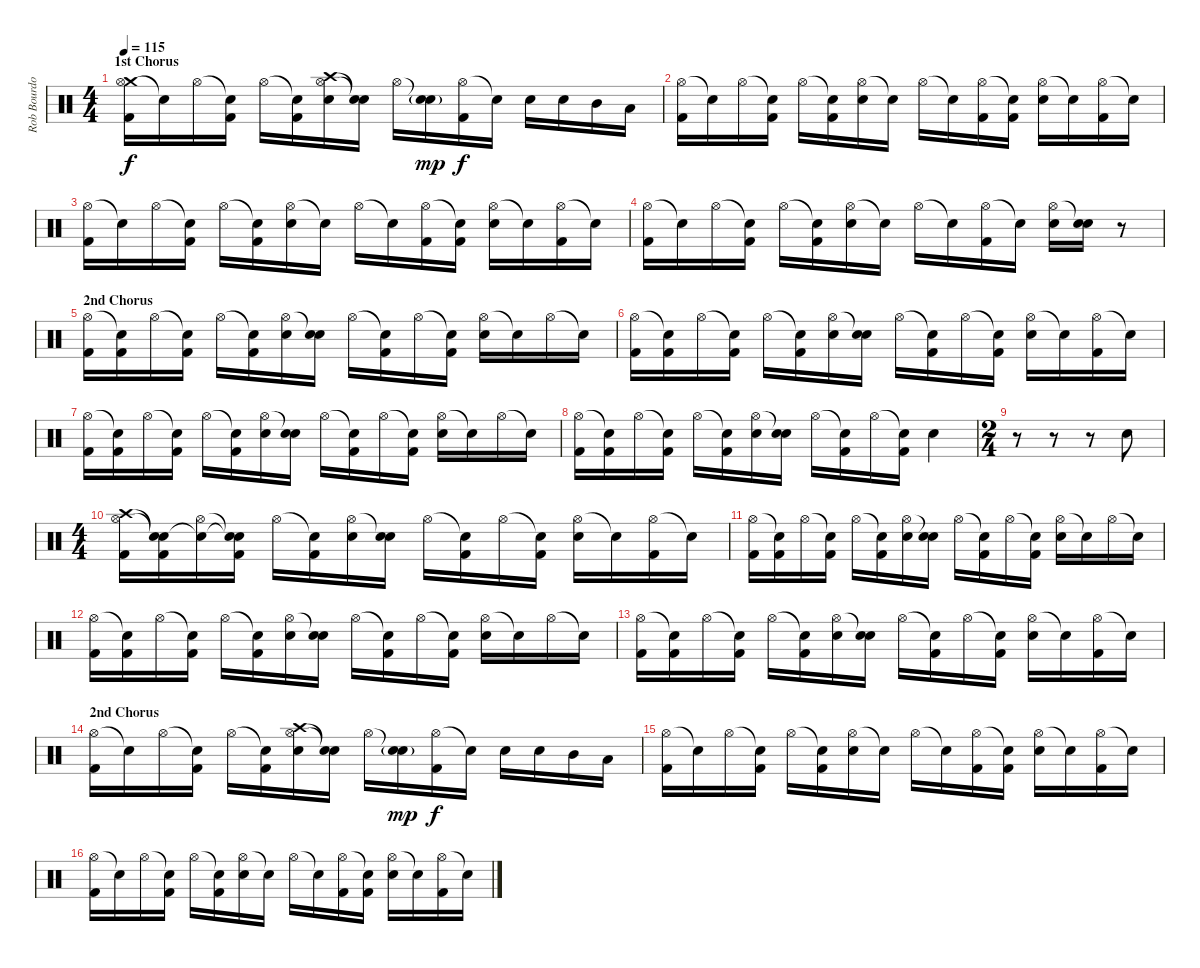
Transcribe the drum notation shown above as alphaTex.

\track ("Rob Bourdon (Drums)" "Rob Bourdo") {instrument percussion}
\staff {score}
\articulation defaults
\ts (4 4)
\section ("" "1st Chorus")
\tempo 115
\clef neutral
\ks c
("Crash medium (hit)" "Hi-Hat (open)" "Kick (hit) 2").16{dy f} "Snare (hit)"{t}.16 "Hi-Hat (open)".16 ("Snare (hit)"{t} "Kick (hit) 2").16 "Hi-Hat (open)".16 ("Snare (hit)"{t} "Kick (hit) 2").16 ("Crash high (hit)" "Hi-Hat (open)" "Electric Snare (hit)").16 ("Snare (hit)"{t} "Snare (hit)"{t}).16 "Hi-Hat (open)".16 ("Snare (hit)"{t} "Electric Snare (hit)"{g}).16{dy mp} ("Hi-Hat (open)" "Kick (hit) 2").16{dy f} "Snare (hit)"{t}.16 "Electric Snare (hit)".16 "Electric Snare (hit)".16 "Mid Tom (hit)".16 "Low Tom (hit)".16 |
("Hi-Hat (open)" "Kick (hit) 2").16 "Snare (hit)"{t}.16 "Hi-Hat (open)".16 ("Snare (hit)"{t} "Kick (hit) 2").16 "Hi-Hat (open)".16 ("Snare (hit)"{t} "Kick (hit) 2").16 ("Hi-Hat (open)" "Electric Snare (hit)").16 "Snare (hit)"{t}.16 "Hi-Hat (open)".16 "Snare (hit)"{t}.16 ("Hi-Hat (open)" "Kick (hit) 2").16 ("Snare (hit)"{t} "Kick (hit) 2").16 ("Hi-Hat (open)" "Electric Snare (hit)").16 "Snare (hit)"{t}.16 ("Hi-Hat (open)" "Kick (hit) 2").16 "Snare (hit)"{t}.16 |
("Hi-Hat (open)" "Kick (hit) 2").16 "Snare (hit)"{t}.16 "Hi-Hat (open)".16 ("Snare (hit)"{t} "Kick (hit) 2").16 "Hi-Hat (open)".16 ("Snare (hit)"{t} "Kick (hit) 2").16 ("Hi-Hat (open)" "Electric Snare (hit)").16 "Snare (hit)"{t}.16 "Hi-Hat (open)".16 "Snare (hit)"{t}.16 ("Hi-Hat (open)" "Kick (hit) 2").16 ("Snare (hit)"{t} "Kick (hit) 2").16 ("Hi-Hat (open)" "Electric Snare (hit)").16 "Snare (hit)"{t}.16 ("Hi-Hat (open)" "Kick (hit) 2").16 "Snare (hit)"{t}.16 |
("Hi-Hat (open)" "Kick (hit) 2").16 "Snare (hit)"{t}.16 "Hi-Hat (open)".16 ("Snare (hit)"{t} "Kick (hit) 2").16 "Hi-Hat (open)".16 ("Snare (hit)"{t} "Kick (hit) 2").16 ("Hi-Hat (open)" "Electric Snare (hit)").16 "Snare (hit)"{t}.16 "Hi-Hat (open)".16 "Snare (hit)"{t}.16 ("Hi-Hat (open)" "Kick (hit) 2").16 "Snare (hit)"{t}.16 ("Hi-Hat (open)" "Electric Snare (hit)").16 ("Snare (hit)"{t} "Electric Snare (hit)").16 r.8 |
\section ("" "2nd Chorus")
("Hi-Hat (open)" "Kick (hit) 2").16 ("Snare (hit)"{t} "Kick (hit) 2").16 "Hi-Hat (open)".16 ("Snare (hit)"{t} "Kick (hit) 2").16 "Hi-Hat (open)".16 ("Snare (hit)"{t} "Kick (hit) 2").16 ("Hi-Hat (open)" "Electric Snare (hit)").16 ("Snare (hit)"{t} "Electric Snare (hit)").16 "Hi-Hat (open)".16 ("Snare (hit)"{t} "Kick (hit) 2").16 "Hi-Hat (open)".16 ("Snare (hit)"{t} "Kick (hit) 2").16 ("Hi-Hat (open)" "Electric Snare (hit)").16 "Snare (hit)"{t}.16 "Hi-Hat (open)".16 "Snare (hit)"{t}.16 |
("Hi-Hat (open)" "Kick (hit) 2").16 ("Snare (hit)"{t} "Kick (hit) 2").16 "Hi-Hat (open)".16 ("Snare (hit)"{t} "Kick (hit) 2").16 "Hi-Hat (open)".16 ("Snare (hit)"{t} "Kick (hit) 2").16 ("Hi-Hat (open)" "Electric Snare (hit)").16 ("Snare (hit)"{t} "Electric Snare (hit)").16 "Hi-Hat (open)".16 ("Snare (hit)"{t} "Kick (hit) 2").16 "Hi-Hat (open)".16 ("Snare (hit)"{t} "Kick (hit) 2").16 ("Hi-Hat (open)" "Electric Snare (hit)").16 "Snare (hit)"{t}.16 ("Hi-Hat (open)" "Kick (hit) 2").16 "Snare (hit)"{t}.16 |
("Hi-Hat (open)" "Kick (hit) 2").16 ("Snare (hit)"{t} "Kick (hit) 2").16 "Hi-Hat (open)".16 ("Snare (hit)"{t} "Kick (hit) 2").16 "Hi-Hat (open)".16 ("Snare (hit)"{t} "Kick (hit) 2").16 ("Hi-Hat (open)" "Electric Snare (hit)").16 ("Snare (hit)"{t} "Electric Snare (hit)").16 "Hi-Hat (open)".16 ("Snare (hit)"{t} "Kick (hit) 2").16 "Hi-Hat (open)".16 ("Snare (hit)"{t} "Kick (hit) 2").16 ("Hi-Hat (open)" "Electric Snare (hit)").16 "Snare (hit)"{t}.16 "Hi-Hat (open)".16 "Snare (hit)"{t}.16 |
("Hi-Hat (open)" "Kick (hit) 2").16 ("Snare (hit)"{t} "Kick (hit) 2").16 "Hi-Hat (open)".16 ("Snare (hit)"{t} "Kick (hit) 2").16 "Hi-Hat (open)".16 ("Snare (hit)"{t} "Kick (hit) 2").16 ("Hi-Hat (open)" "Electric Snare (hit)").16 ("Snare (hit)"{t} "Electric Snare (hit)").16 "Hi-Hat (open)".16 ("Snare (hit)"{t} "Kick (hit) 2").16 "Hi-Hat (open)".16 ("Snare (hit)"{t} "Kick (hit) 2").16 "Electric Snare (hit)".4 |
\ts (2 4)
r.8 r.8 r.8 "Electric Snare (hit)".8 |
\ts (4 4)
("Crash high (hit)" "Hi-Hat (open)" "Kick (hit) 2").16 ("Snare (hit)"{t} "Snare (hit)"{t} "Kick (hit) 2").16 ("Snare (hit)"{t} "Hi-Hat (open)").16 ("Snare (hit)"{t} "Snare (hit)"{t} "Kick (hit) 2").16 "Hi-Hat (open)".16 ("Snare (hit)"{t} "Kick (hit) 2").16 ("Hi-Hat (open)" "Electric Snare (hit)").16 ("Snare (hit)"{t} "Electric Snare (hit)").16 "Hi-Hat (open)".16 ("Snare (hit)"{t} "Kick (hit) 2").16 "Hi-Hat (open)".16 ("Snare (hit)"{t} "Kick (hit) 2").16 ("Hi-Hat (open)" "Electric Snare (hit)").16 "Snare (hit)"{t}.16 ("Hi-Hat (open)" "Kick (hit) 2").16 "Snare (hit)"{t}.16 |
("Hi-Hat (open)" "Kick (hit) 2").16 ("Snare (hit)"{t} "Kick (hit) 2").16 "Hi-Hat (open)".16 ("Snare (hit)"{t} "Kick (hit) 2").16 "Hi-Hat (open)".16 ("Snare (hit)"{t} "Kick (hit) 2").16 ("Hi-Hat (open)" "Electric Snare (hit)").16 ("Snare (hit)"{t} "Electric Snare (hit)").16 "Hi-Hat (open)".16 ("Snare (hit)"{t} "Kick (hit) 2").16 "Hi-Hat (open)".16 ("Snare (hit)"{t} "Kick (hit) 2").16 ("Hi-Hat (open)" "Electric Snare (hit)").16 "Snare (hit)"{t}.16 "Hi-Hat (open)".16 "Snare (hit)"{t}.16 |
("Hi-Hat (open)" "Kick (hit) 2").16 ("Snare (hit)"{t} "Kick (hit) 2").16 "Hi-Hat (open)".16 ("Snare (hit)"{t} "Kick (hit) 2").16 "Hi-Hat (open)".16 ("Snare (hit)"{t} "Kick (hit) 2").16 ("Hi-Hat (open)" "Electric Snare (hit)").16 ("Snare (hit)"{t} "Electric Snare (hit)").16 "Hi-Hat (open)".16 ("Snare (hit)"{t} "Kick (hit) 2").16 "Hi-Hat (open)".16 ("Snare (hit)"{t} "Kick (hit) 2").16 ("Hi-Hat (open)" "Electric Snare (hit)").16 "Snare (hit)"{t}.16 "Hi-Hat (open)".16 "Snare (hit)"{t}.16 |
("Hi-Hat (open)" "Kick (hit) 2").16 ("Snare (hit)"{t} "Kick (hit) 2").16 "Hi-Hat (open)".16 ("Snare (hit)"{t} "Kick (hit) 2").16 "Hi-Hat (open)".16 ("Snare (hit)"{t} "Kick (hit) 2").16 ("Hi-Hat (open)" "Electric Snare (hit)").16 ("Snare (hit)"{t} "Electric Snare (hit)").16 "Hi-Hat (open)".16 ("Snare (hit)"{t} "Kick (hit) 2").16 "Hi-Hat (open)".16 ("Snare (hit)"{t} "Kick (hit) 2").16 ("Hi-Hat (open)" "Electric Snare (hit)").16 "Snare (hit)"{t}.16 ("Hi-Hat (open)" "Kick (hit) 2").16 "Snare (hit)"{t}.16 |
\section ("" "2nd Chorus")
("Hi-Hat (open)" "Kick (hit) 2").16 "Snare (hit)"{t}.16 "Hi-Hat (open)".16 ("Snare (hit)"{t} "Kick (hit) 2").16 "Hi-Hat (open)".16 ("Snare (hit)"{t} "Kick (hit) 2").16 ("Crash high (hit)" "Hi-Hat (open)" "Electric Snare (hit)").16 ("Snare (hit)"{t} "Snare (hit)"{t}).16 "Hi-Hat (open)".16 ("Snare (hit)"{t} "Electric Snare (hit)"{g}).16{dy mp} ("Hi-Hat (open)" "Kick (hit) 2").16{dy f} "Snare (hit)"{t}.16 "Electric Snare (hit)".16 "Electric Snare (hit)".16 "Mid Tom (hit)".16 "Low Tom (hit)".16 |
("Hi-Hat (open)" "Kick (hit) 2").16 "Snare (hit)"{t}.16 "Hi-Hat (open)".16 ("Snare (hit)"{t} "Kick (hit) 2").16 "Hi-Hat (open)".16 ("Snare (hit)"{t} "Kick (hit) 2").16 ("Hi-Hat (open)" "Electric Snare (hit)").16 "Snare (hit)"{t}.16 "Hi-Hat (open)".16 "Snare (hit)"{t}.16 ("Hi-Hat (open)" "Kick (hit) 2").16 ("Snare (hit)"{t} "Kick (hit) 2").16 ("Hi-Hat (open)" "Electric Snare (hit)").16 "Snare (hit)"{t}.16 ("Hi-Hat (open)" "Kick (hit) 2").16 "Snare (hit)"{t}.16 |
("Hi-Hat (open)" "Kick (hit) 2").16 "Snare (hit)"{t}.16 "Hi-Hat (open)".16 ("Snare (hit)"{t} "Kick (hit) 2").16 "Hi-Hat (open)".16 ("Snare (hit)"{t} "Kick (hit) 2").16 ("Hi-Hat (open)" "Electric Snare (hit)").16 "Snare (hit)"{t}.16 "Hi-Hat (open)".16 "Snare (hit)"{t}.16 ("Hi-Hat (open)" "Kick (hit) 2").16 ("Snare (hit)"{t} "Kick (hit) 2").16 ("Hi-Hat (open)" "Electric Snare (hit)").16 "Snare (hit)"{t}.16 ("Hi-Hat (open)" "Kick (hit) 2").16 "Snare (hit)"{t}.16
